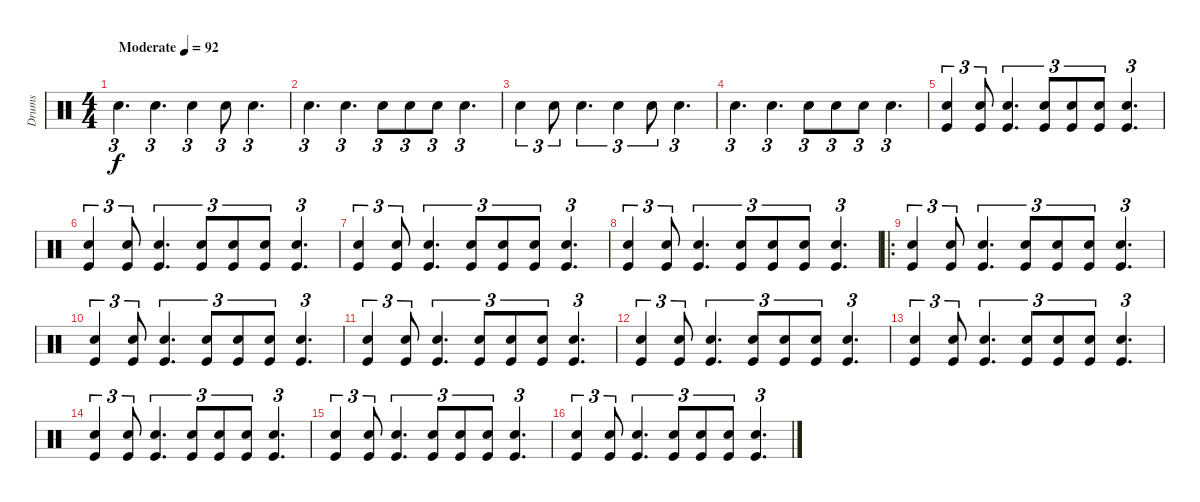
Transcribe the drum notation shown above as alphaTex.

\track ("Drums" "Drums") {instrument percussion}
\staff {score}
\articulation defaults
\ts (4 4)
\tempo (92 "Moderate")
\clef neutral
\ks c "Hand Clap (hit)".4{d tu (3 2) dy f} "Hand Clap (hit)".4{d tu (3 2)} "Hand Clap (hit)".4{tu (3 2)} "Hand Clap (hit)".8{tu (3 2)} "Hand Clap (hit)".4{d tu (3 2)}
|
"Hand Clap (hit)".4{d tu (3 2)} "Hand Clap (hit)".4{d tu (3 2)} "Hand Clap (hit)".8{tu (3 2)} "Hand Clap (hit)".8{tu (3 2)} "Hand Clap (hit)".8{tu (3 2)} "Hand Clap (hit)".4{d tu (3 2)} |
"Hand Clap (hit)".4{tu (3 2)} "Hand Clap (hit)".8{tu (3 2)} "Hand Clap (hit)".4{d tu (3 2)} "Hand Clap (hit)".4{tu (3 2)} "Hand Clap (hit)".8{tu (3 2)} "Hand Clap (hit)".4{d tu (3 2)} |
"Hand Clap (hit)".4{d tu (3 2)} "Hand Clap (hit)".4{d tu (3 2)} "Hand Clap (hit)".8{tu (3 2)} "Hand Clap (hit)".8{tu (3 2)} "Hand Clap (hit)".8{tu (3 2)} "Hand Clap (hit)".4{d tu (3 2)} |
("Hand Clap (hit)" "Kick (hit)").4{tu (3 2)} ("Hand Clap (hit)" "Kick (hit)").8{tu (3 2)} ("Hand Clap (hit)" "Kick (hit)").4{d tu (3 2)} ("Hand Clap (hit)" "Kick (hit)").8{tu (3 2)} ("Hand Clap (hit)" "Kick (hit)").8{tu (3 2)} ("Hand Clap (hit)" "Kick (hit)").8{tu (3 2)} ("Hand Clap (hit)" "Kick (hit)").4{d tu (3 2)} |
("Hand Clap (hit)" "Kick (hit)").4{tu (3 2)} ("Hand Clap (hit)" "Kick (hit)").8{tu (3 2)} ("Hand Clap (hit)" "Kick (hit)").4{d tu (3 2)} ("Hand Clap (hit)" "Kick (hit)").8{tu (3 2)} ("Hand Clap (hit)" "Kick (hit)").8{tu (3 2)} ("Hand Clap (hit)" "Kick (hit)").8{tu (3 2)} ("Hand Clap (hit)" "Kick (hit)").4{d tu (3 2)} |
("Hand Clap (hit)" "Kick (hit)").4{tu (3 2)} ("Hand Clap (hit)" "Kick (hit)").8{tu (3 2)} ("Hand Clap (hit)" "Kick (hit)").4{d tu (3 2)} ("Hand Clap (hit)" "Kick (hit)").8{tu (3 2)} ("Hand Clap (hit)" "Kick (hit)").8{tu (3 2)} ("Hand Clap (hit)" "Kick (hit)").8{tu (3 2)} ("Hand Clap (hit)" "Kick (hit)").4{d tu (3 2)} |
("Hand Clap (hit)" "Kick (hit)").4{tu (3 2)} ("Hand Clap (hit)" "Kick (hit)").8{tu (3 2)} ("Hand Clap (hit)" "Kick (hit)").4{d tu (3 2)} ("Hand Clap (hit)" "Kick (hit)").8{tu (3 2)} ("Hand Clap (hit)" "Kick (hit)").8{tu (3 2)} ("Hand Clap (hit)" "Kick (hit)").8{tu (3 2)} ("Hand Clap (hit)" "Kick (hit)").4{d tu (3 2)} |
\ro
("Hand Clap (hit)" "Kick (hit)").4{tu (3 2)} ("Hand Clap (hit)" "Kick (hit)").8{tu (3 2)} ("Hand Clap (hit)" "Kick (hit)").4{d tu (3 2)} ("Hand Clap (hit)" "Kick (hit)").8{tu (3 2)} ("Hand Clap (hit)" "Kick (hit)").8{tu (3 2)} ("Hand Clap (hit)" "Kick (hit)").8{tu (3 2)} ("Hand Clap (hit)" "Kick (hit)").4{d tu (3 2)} |
("Hand Clap (hit)" "Kick (hit)").4{tu (3 2)} ("Hand Clap (hit)" "Kick (hit)").8{tu (3 2)} ("Hand Clap (hit)" "Kick (hit)").4{d tu (3 2)} ("Hand Clap (hit)" "Kick (hit)").8{tu (3 2)} ("Hand Clap (hit)" "Kick (hit)").8{tu (3 2)} ("Hand Clap (hit)" "Kick (hit)").8{tu (3 2)} ("Hand Clap (hit)" "Kick (hit)").4{d tu (3 2)} |
("Hand Clap (hit)" "Kick (hit)").4{tu (3 2)} ("Hand Clap (hit)" "Kick (hit)").8{tu (3 2)} ("Hand Clap (hit)" "Kick (hit)").4{d tu (3 2)} ("Hand Clap (hit)" "Kick (hit)").8{tu (3 2)} ("Hand Clap (hit)" "Kick (hit)").8{tu (3 2)} ("Hand Clap (hit)" "Kick (hit)").8{tu (3 2)} ("Hand Clap (hit)" "Kick (hit)").4{d tu (3 2)} |
("Hand Clap (hit)" "Kick (hit)").4{tu (3 2)} ("Hand Clap (hit)" "Kick (hit)").8{tu (3 2)} ("Hand Clap (hit)" "Kick (hit)").4{d tu (3 2)} ("Hand Clap (hit)" "Kick (hit)").8{tu (3 2)} ("Hand Clap (hit)" "Kick (hit)").8{tu (3 2)} ("Hand Clap (hit)" "Kick (hit)").8{tu (3 2)} ("Hand Clap (hit)" "Kick (hit)").4{d tu (3 2)} |
("Hand Clap (hit)" "Kick (hit)").4{tu (3 2)} ("Hand Clap (hit)" "Kick (hit)").8{tu (3 2)} ("Hand Clap (hit)" "Kick (hit)").4{d tu (3 2)} ("Hand Clap (hit)" "Kick (hit)").8{tu (3 2)} ("Hand Clap (hit)" "Kick (hit)").8{tu (3 2)} ("Hand Clap (hit)" "Kick (hit)").8{tu (3 2)} ("Hand Clap (hit)" "Kick (hit)").4{d tu (3 2)} |
("Hand Clap (hit)" "Kick (hit)").4{tu (3 2)} ("Hand Clap (hit)" "Kick (hit)").8{tu (3 2)} ("Hand Clap (hit)" "Kick (hit)").4{d tu (3 2)} ("Hand Clap (hit)" "Kick (hit)").8{tu (3 2)} ("Hand Clap (hit)" "Kick (hit)").8{tu (3 2)} ("Hand Clap (hit)" "Kick (hit)").8{tu (3 2)} ("Hand Clap (hit)" "Kick (hit)").4{d tu (3 2)} |
("Hand Clap (hit)" "Kick (hit)").4{tu (3 2)} ("Hand Clap (hit)" "Kick (hit)").8{tu (3 2)} ("Hand Clap (hit)" "Kick (hit)").4{d tu (3 2)} ("Hand Clap (hit)" "Kick (hit)").8{tu (3 2)} ("Hand Clap (hit)" "Kick (hit)").8{tu (3 2)} ("Hand Clap (hit)" "Kick (hit)").8{tu (3 2)} ("Hand Clap (hit)" "Kick (hit)").4{d tu (3 2)} |
("Hand Clap (hit)" "Kick (hit)").4{tu (3 2)} ("Hand Clap (hit)" "Kick (hit)").8{tu (3 2)} ("Hand Clap (hit)" "Kick (hit)").4{d tu (3 2)} ("Hand Clap (hit)" "Kick (hit)").8{tu (3 2)} ("Hand Clap (hit)" "Kick (hit)").8{tu (3 2)} ("Hand Clap (hit)" "Kick (hit)").8{tu (3 2)} ("Hand Clap (hit)" "Kick (hit)").4{d tu (3 2)}
